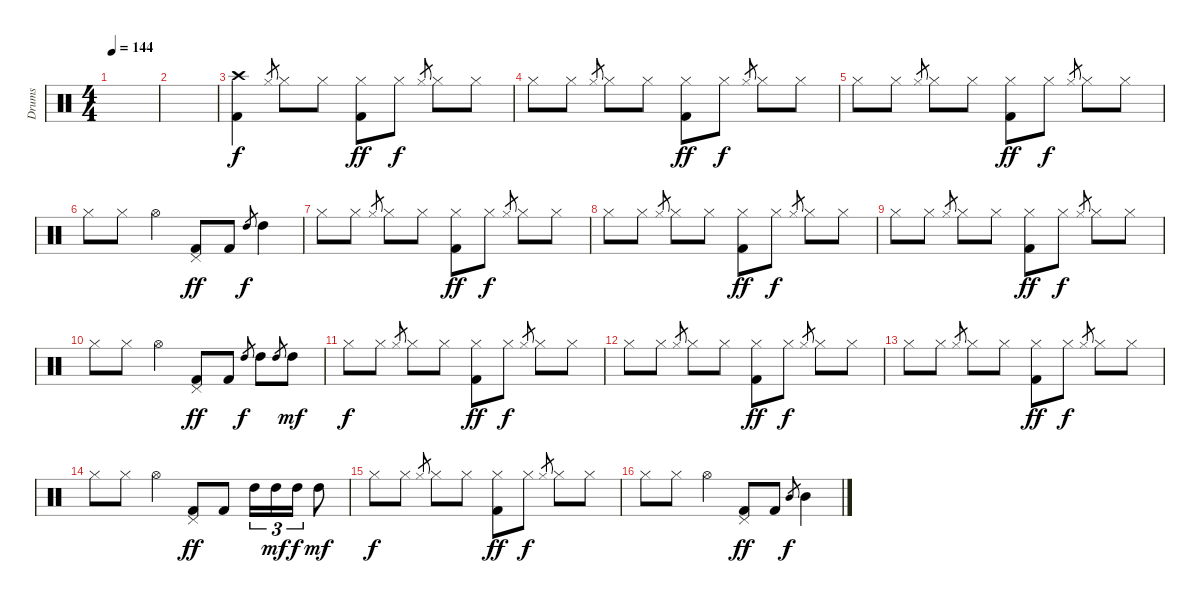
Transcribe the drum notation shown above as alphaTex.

\track ("Drums" "Drums") {instrument percussion}
\staff {score}
\articulation defaults
\ts (4 4)
\tempo 144
\clef neutral
\ks c
|
|
("Crash high (hit)" "Kick (hit) 2").4 "Hi-Hat (closed)".8{gr dy f} "Hi-Hat (closed)".8 "Hi-Hat (closed)".8 ("Hi-Hat (closed)" "Kick (hit) 2").8{dy ff} "Hi-Hat (closed)".8{dy f} "Hi-Hat (closed)".8{gr} "Hi-Hat (closed)".8 "Hi-Hat (closed)".8 |
"Hi-Hat (closed)".8 "Hi-Hat (closed)".8 "Hi-Hat (closed)".8{gr} "Hi-Hat (closed)".8 "Hi-Hat (closed)".8 ("Hi-Hat (closed)" "Kick (hit) 2").8{dy ff} "Hi-Hat (closed)".8{dy f} "Hi-Hat (closed)".8{gr} "Hi-Hat (closed)".8 "Hi-Hat (closed)".8 |
"Hi-Hat (closed)".8 "Hi-Hat (closed)".8 "Hi-Hat (closed)".8{gr} "Hi-Hat (closed)".8 "Hi-Hat (closed)".8 ("Hi-Hat (closed)" "Kick (hit) 2").8{dy ff} "Hi-Hat (closed)".8{dy f} "Hi-Hat (closed)".8{gr} "Hi-Hat (closed)".8 "Hi-Hat (closed)".8 |
"Hi-Hat (closed)".8 "Hi-Hat (closed)".8 "Hi-Hat (open)".4 ("Pedal Hi-Hat (hit)" "Kick (hit) 2").8{dy ff} "Kick (hit) 2".8 "High Tom (hit)".8{gr dy f} "High Tom (hit)".4 |
"Hi-Hat (closed)".8 "Hi-Hat (closed)".8 "Hi-Hat (closed)".8{gr} "Hi-Hat (closed)".8 "Hi-Hat (closed)".8 ("Hi-Hat (closed)" "Kick (hit) 2").8{dy ff} "Hi-Hat (closed)".8{dy f} "Hi-Hat (closed)".8{gr} "Hi-Hat (closed)".8 "Hi-Hat (closed)".8 |
"Hi-Hat (closed)".8 "Hi-Hat (closed)".8 "Hi-Hat (closed)".8{gr} "Hi-Hat (closed)".8 "Hi-Hat (closed)".8 ("Hi-Hat (closed)" "Kick (hit) 2").8{dy ff} "Hi-Hat (closed)".8{dy f} "Hi-Hat (closed)".8{gr} "Hi-Hat (closed)".8 "Hi-Hat (closed)".8 |
"Hi-Hat (closed)".8 "Hi-Hat (closed)".8 "Hi-Hat (closed)".8{gr} "Hi-Hat (closed)".8 "Hi-Hat (closed)".8 ("Hi-Hat (closed)" "Kick (hit) 2").8{dy ff} "Hi-Hat (closed)".8{dy f} "Hi-Hat (closed)".8{gr} "Hi-Hat (closed)".8 "Hi-Hat (closed)".8 |
"Hi-Hat (closed)".8 "Hi-Hat (closed)".8 "Hi-Hat (open)".4 ("Pedal Hi-Hat (hit)" "Kick (hit) 2").8{dy ff} "Kick (hit) 2".8 "High Tom (hit)".8{gr dy f} "High Tom (hit)".8 "High Tom (hit)".8{gr} "High Tom (hit)".8{dy mf} |
"Hi-Hat (closed)".8{dy f} "Hi-Hat (closed)".8 "Hi-Hat (closed)".8{gr} "Hi-Hat (closed)".8 "Hi-Hat (closed)".8 ("Hi-Hat (closed)" "Kick (hit) 2").8{dy ff} "Hi-Hat (closed)".8{dy f} "Hi-Hat (closed)".8{gr} "Hi-Hat (closed)".8 "Hi-Hat (closed)".8 |
"Hi-Hat (closed)".8 "Hi-Hat (closed)".8 "Hi-Hat (closed)".8{gr} "Hi-Hat (closed)".8 "Hi-Hat (closed)".8 ("Hi-Hat (closed)" "Kick (hit) 2").8{dy ff} "Hi-Hat (closed)".8{dy f} "Hi-Hat (closed)".8{gr} "Hi-Hat (closed)".8 "Hi-Hat (closed)".8 |
"Hi-Hat (closed)".8 "Hi-Hat (closed)".8 "Hi-Hat (closed)".8{gr} "Hi-Hat (closed)".8 "Hi-Hat (closed)".8 ("Hi-Hat (closed)" "Kick (hit) 2").8{dy ff} "Hi-Hat (closed)".8{dy f} "Hi-Hat (closed)".8{gr} "Hi-Hat (closed)".8 "Hi-Hat (closed)".8 |
"Hi-Hat (closed)".8 "Hi-Hat (closed)".8 "Hi-Hat (open)".4 ("Pedal Hi-Hat (hit)" "Kick (hit) 2").8{dy ff} "Kick (hit) 2".8 "High Tom (hit)".16{tu (3 2)} "High Tom (hit)".16{tu (3 2) dy mf} "High Tom (hit)".16{tu (3 2) dy f} "High Tom (hit)".8{dy mf} |
"Hi-Hat (closed)".8{dy f} "Hi-Hat (closed)".8 "Hi-Hat (closed)".8{gr} "Hi-Hat (closed)".8 "Hi-Hat (closed)".8 ("Hi-Hat (closed)" "Kick (hit) 2").8{dy ff} "Hi-Hat (closed)".8{dy f} "Hi-Hat (closed)".8{gr} "Hi-Hat (closed)".8 "Hi-Hat (closed)".8 |
"Hi-Hat (closed)".8 "Hi-Hat (closed)".8 "Hi-Hat (open)".4 ("Pedal Hi-Hat (hit)" "Kick (hit) 2").8{dy ff} "Kick (hit) 2".8 "Mid Tom (hit)".8{gr dy f} "Mid Tom (hit)".4
